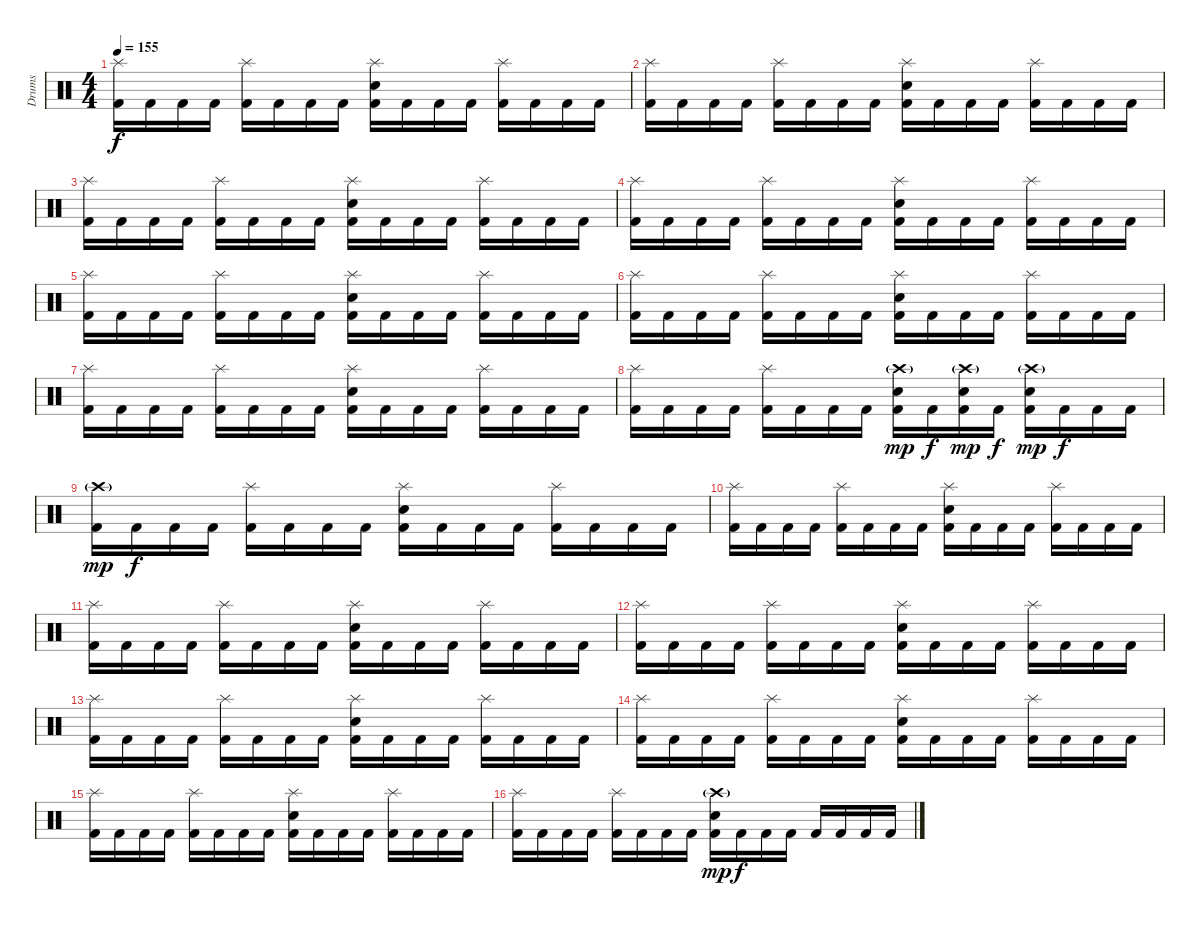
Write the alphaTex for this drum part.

\track ("Drums" "Drums") {instrument percussion}
\staff {score}
\articulation defaults
\ts (4 4)
\tempo 155
\clef neutral
\ks c
("Splash (hit)" "Kick (hit) 2").16{dy f} "Kick (hit) 2".16 "Kick (hit) 2".16 "Kick (hit) 2".16 ("Splash (hit)" "Kick (hit) 2").16 "Kick (hit) 2".16 "Kick (hit) 2".16 "Kick (hit) 2".16 ("Splash (hit)" "Electric Snare (hit)" "Kick (hit) 2").16 "Kick (hit) 2".16 "Kick (hit) 2".16 "Kick (hit) 2".16 ("Splash (hit)" "Kick (hit) 2").16 "Kick (hit) 2".16 "Kick (hit) 2".16 "Kick (hit) 2".16 |
("Splash (hit)" "Kick (hit) 2").16 "Kick (hit) 2".16 "Kick (hit) 2".16 "Kick (hit) 2".16 ("Splash (hit)" "Kick (hit) 2").16 "Kick (hit) 2".16 "Kick (hit) 2".16 "Kick (hit) 2".16 ("Splash (hit)" "Electric Snare (hit)" "Kick (hit) 2").16 "Kick (hit) 2".16 "Kick (hit) 2".16 "Kick (hit) 2".16 ("Splash (hit)" "Kick (hit) 2").16 "Kick (hit) 2".16 "Kick (hit) 2".16 "Kick (hit) 2".16 |
("Splash (hit)" "Kick (hit) 2").16 "Kick (hit) 2".16 "Kick (hit) 2".16 "Kick (hit) 2".16 ("Splash (hit)" "Kick (hit) 2").16 "Kick (hit) 2".16 "Kick (hit) 2".16 "Kick (hit) 2".16 ("Splash (hit)" "Electric Snare (hit)" "Kick (hit) 2").16 "Kick (hit) 2".16 "Kick (hit) 2".16 "Kick (hit) 2".16 ("Splash (hit)" "Kick (hit) 2").16 "Kick (hit) 2".16 "Kick (hit) 2".16 "Kick (hit) 2".16 |
("Splash (hit)" "Kick (hit) 2").16 "Kick (hit) 2".16 "Kick (hit) 2".16 "Kick (hit) 2".16 ("Splash (hit)" "Kick (hit) 2").16 "Kick (hit) 2".16 "Kick (hit) 2".16 "Kick (hit) 2".16 ("Splash (hit)" "Electric Snare (hit)" "Kick (hit) 2").16 "Kick (hit) 2".16 "Kick (hit) 2".16 "Kick (hit) 2".16 ("Splash (hit)" "Kick (hit) 2").16 "Kick (hit) 2".16 "Kick (hit) 2".16 "Kick (hit) 2".16 |
("Splash (hit)" "Kick (hit) 2").16 "Kick (hit) 2".16 "Kick (hit) 2".16 "Kick (hit) 2".16 ("Splash (hit)" "Kick (hit) 2").16 "Kick (hit) 2".16 "Kick (hit) 2".16 "Kick (hit) 2".16 ("Splash (hit)" "Electric Snare (hit)" "Kick (hit) 2").16 "Kick (hit) 2".16 "Kick (hit) 2".16 "Kick (hit) 2".16 ("Splash (hit)" "Kick (hit) 2").16 "Kick (hit) 2".16 "Kick (hit) 2".16 "Kick (hit) 2".16 |
("Splash (hit)" "Kick (hit) 2").16 "Kick (hit) 2".16 "Kick (hit) 2".16 "Kick (hit) 2".16 ("Splash (hit)" "Kick (hit) 2").16 "Kick (hit) 2".16 "Kick (hit) 2".16 "Kick (hit) 2".16 ("Splash (hit)" "Electric Snare (hit)" "Kick (hit) 2").16 "Kick (hit) 2".16 "Kick (hit) 2".16 "Kick (hit) 2".16 ("Splash (hit)" "Kick (hit) 2").16 "Kick (hit) 2".16 "Kick (hit) 2".16 "Kick (hit) 2".16 |
("Splash (hit)" "Kick (hit) 2").16 "Kick (hit) 2".16 "Kick (hit) 2".16 "Kick (hit) 2".16 ("Splash (hit)" "Kick (hit) 2").16 "Kick (hit) 2".16 "Kick (hit) 2".16 "Kick (hit) 2".16 ("Splash (hit)" "Electric Snare (hit)" "Kick (hit) 2").16 "Kick (hit) 2".16 "Kick (hit) 2".16 "Kick (hit) 2".16 ("Splash (hit)" "Kick (hit) 2").16 "Kick (hit) 2".16 "Kick (hit) 2".16 "Kick (hit) 2".16 |
("Splash (hit)" "Kick (hit) 2").16 "Kick (hit) 2".16 "Kick (hit) 2".16 "Kick (hit) 2".16 ("Splash (hit)" "Kick (hit) 2").16 "Kick (hit) 2".16 "Kick (hit) 2".16 "Kick (hit) 2".16 ("Crash high (hit)"{g} "Electric Snare (hit)" "Kick (hit) 2").16{dy mp} "Kick (hit) 2".16{dy f} ("Crash high (hit)"{g} "Electric Snare (hit)" "Kick (hit) 2").16{dy mp} "Kick (hit) 2".16{dy f} ("Crash high (hit)"{g} "Electric Snare (hit)" "Kick (hit) 2").16{dy mp} "Kick (hit) 2".16{dy f} "Kick (hit) 2".16 "Kick (hit) 2".16 |
("Crash high (hit)"{g} "Kick (hit) 2").16{dy mp} "Kick (hit) 2".16{dy f} "Kick (hit) 2".16 "Kick (hit) 2".16 ("Splash (hit)" "Kick (hit) 2").16 "Kick (hit) 2".16 "Kick (hit) 2".16 "Kick (hit) 2".16 ("Splash (hit)" "Electric Snare (hit)" "Kick (hit) 2").16 "Kick (hit) 2".16 "Kick (hit) 2".16 "Kick (hit) 2".16 ("Splash (hit)" "Kick (hit) 2").16 "Kick (hit) 2".16 "Kick (hit) 2".16 "Kick (hit) 2".16 |
("Splash (hit)" "Kick (hit) 2").16 "Kick (hit) 2".16 "Kick (hit) 2".16 "Kick (hit) 2".16 ("Splash (hit)" "Kick (hit) 2").16 "Kick (hit) 2".16 "Kick (hit) 2".16 "Kick (hit) 2".16 ("Splash (hit)" "Electric Snare (hit)" "Kick (hit) 2").16 "Kick (hit) 2".16 "Kick (hit) 2".16 "Kick (hit) 2".16 ("Splash (hit)" "Kick (hit) 2").16 "Kick (hit) 2".16 "Kick (hit) 2".16 "Kick (hit) 2".16 |
("Splash (hit)" "Kick (hit) 2").16 "Kick (hit) 2".16 "Kick (hit) 2".16 "Kick (hit) 2".16 ("Splash (hit)" "Kick (hit) 2").16 "Kick (hit) 2".16 "Kick (hit) 2".16 "Kick (hit) 2".16 ("Splash (hit)" "Electric Snare (hit)" "Kick (hit) 2").16 "Kick (hit) 2".16 "Kick (hit) 2".16 "Kick (hit) 2".16 ("Splash (hit)" "Kick (hit) 2").16 "Kick (hit) 2".16 "Kick (hit) 2".16 "Kick (hit) 2".16 |
("Splash (hit)" "Kick (hit) 2").16 "Kick (hit) 2".16 "Kick (hit) 2".16 "Kick (hit) 2".16 ("Splash (hit)" "Kick (hit) 2").16 "Kick (hit) 2".16 "Kick (hit) 2".16 "Kick (hit) 2".16 ("Splash (hit)" "Electric Snare (hit)" "Kick (hit) 2").16 "Kick (hit) 2".16 "Kick (hit) 2".16 "Kick (hit) 2".16 ("Splash (hit)" "Kick (hit) 2").16 "Kick (hit) 2".16 "Kick (hit) 2".16 "Kick (hit) 2".16 |
("Splash (hit)" "Kick (hit) 2").16 "Kick (hit) 2".16 "Kick (hit) 2".16 "Kick (hit) 2".16 ("Splash (hit)" "Kick (hit) 2").16 "Kick (hit) 2".16 "Kick (hit) 2".16 "Kick (hit) 2".16 ("Splash (hit)" "Electric Snare (hit)" "Kick (hit) 2").16 "Kick (hit) 2".16 "Kick (hit) 2".16 "Kick (hit) 2".16 ("Splash (hit)" "Kick (hit) 2").16 "Kick (hit) 2".16 "Kick (hit) 2".16 "Kick (hit) 2".16 |
("Splash (hit)" "Kick (hit) 2").16 "Kick (hit) 2".16 "Kick (hit) 2".16 "Kick (hit) 2".16 ("Splash (hit)" "Kick (hit) 2").16 "Kick (hit) 2".16 "Kick (hit) 2".16 "Kick (hit) 2".16 ("Splash (hit)" "Electric Snare (hit)" "Kick (hit) 2").16 "Kick (hit) 2".16 "Kick (hit) 2".16 "Kick (hit) 2".16 ("Splash (hit)" "Kick (hit) 2").16 "Kick (hit) 2".16 "Kick (hit) 2".16 "Kick (hit) 2".16 |
("Splash (hit)" "Kick (hit) 2").16 "Kick (hit) 2".16 "Kick (hit) 2".16 "Kick (hit) 2".16 ("Splash (hit)" "Kick (hit) 2").16 "Kick (hit) 2".16 "Kick (hit) 2".16 "Kick (hit) 2".16 ("Splash (hit)" "Electric Snare (hit)" "Kick (hit) 2").16 "Kick (hit) 2".16 "Kick (hit) 2".16 "Kick (hit) 2".16 ("Splash (hit)" "Kick (hit) 2").16 "Kick (hit) 2".16 "Kick (hit) 2".16 "Kick (hit) 2".16 |
("Splash (hit)" "Kick (hit) 2").16 "Kick (hit) 2".16 "Kick (hit) 2".16 "Kick (hit) 2".16 ("Splash (hit)" "Kick (hit) 2").16 "Kick (hit) 2".16 "Kick (hit) 2".16 "Kick (hit) 2".16 ("Crash high (hit)"{g} "Electric Snare (hit)" "Kick (hit) 2").16{dy mp} "Kick (hit) 2".16{dy f} "Kick (hit) 2".16 "Kick (hit) 2".16 "Kick (hit) 2".16 "Kick (hit) 2".16 "Kick (hit) 2".16 "Kick (hit) 2".16
